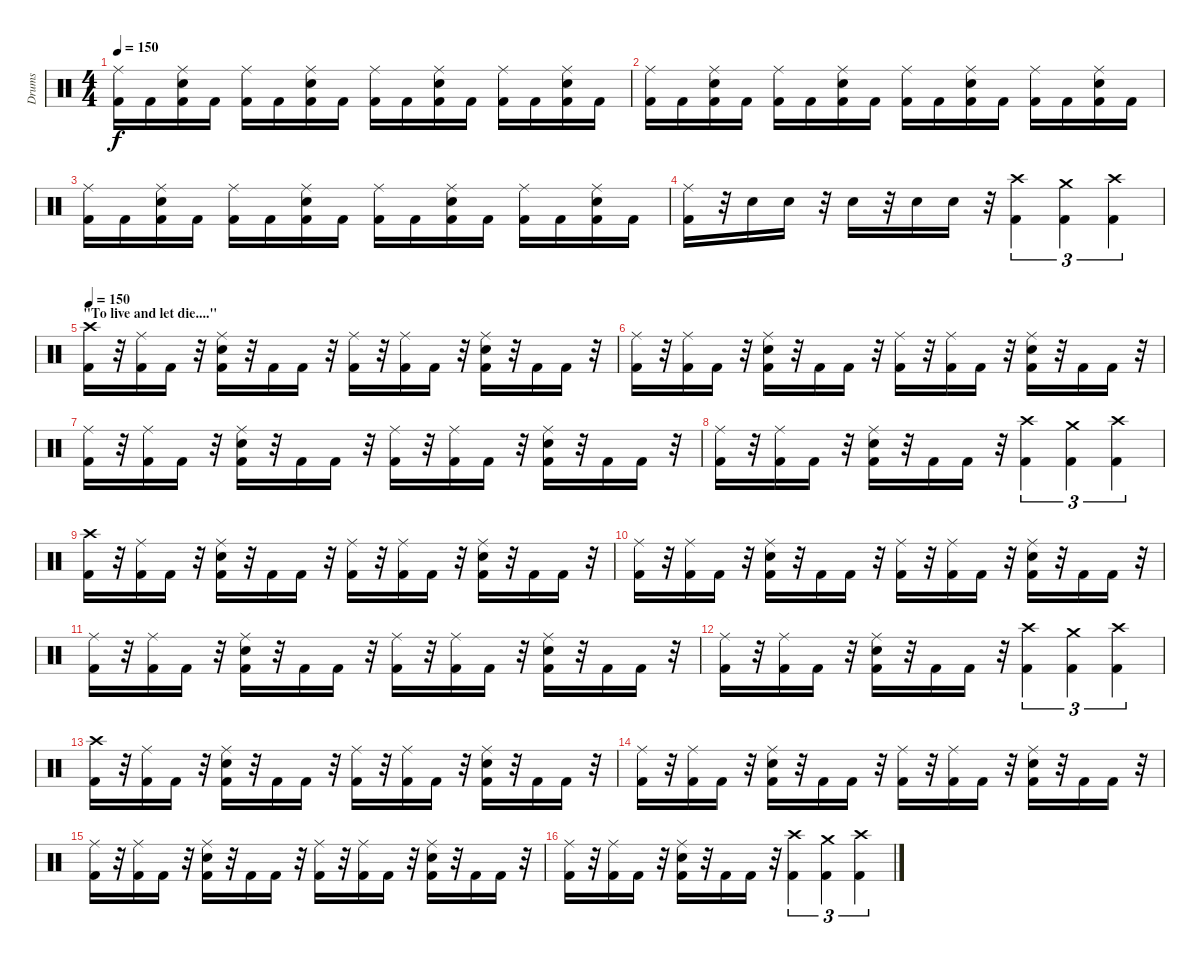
\track ("Drums" "Drums") {instrument percussion}
\staff {score}
\articulation defaults
\ts (4 4)
\tempo 150
\clef neutral
\ks c
("Ride (middle)" "Kick (hit) 2").16{dy f} "Kick (hit) 2".16 ("Ride (middle)" "Electric Snare (hit)" "Kick (hit) 2").16 "Kick (hit) 2".16 ("Ride (middle)" "Kick (hit) 2").16 "Kick (hit) 2".16 ("Ride (middle)" "Electric Snare (hit)" "Kick (hit) 2").16 "Kick (hit) 2".16 ("Ride (middle)" "Kick (hit) 2").16 "Kick (hit) 2".16 ("Ride (middle)" "Electric Snare (hit)" "Kick (hit) 2").16 "Kick (hit) 2".16 ("Ride (middle)" "Kick (hit) 2").16 "Kick (hit) 2".16 ("Ride (middle)" "Electric Snare (hit)" "Kick (hit) 2").16 "Kick (hit) 2".16 |
("Ride (middle)" "Kick (hit) 2").16 "Kick (hit) 2".16 ("Ride (middle)" "Electric Snare (hit)" "Kick (hit) 2").16 "Kick (hit) 2".16 ("Ride (middle)" "Kick (hit) 2").16 "Kick (hit) 2".16 ("Ride (middle)" "Electric Snare (hit)" "Kick (hit) 2").16 "Kick (hit) 2".16 ("Ride (middle)" "Kick (hit) 2").16 "Kick (hit) 2".16 ("Ride (middle)" "Electric Snare (hit)" "Kick (hit) 2").16 "Kick (hit) 2".16 ("Ride (middle)" "Kick (hit) 2").16 "Kick (hit) 2".16 ("Ride (middle)" "Electric Snare (hit)" "Kick (hit) 2").16 "Kick (hit) 2".16 |
("Ride (middle)" "Kick (hit) 2").16 "Kick (hit) 2".16 ("Ride (middle)" "Electric Snare (hit)" "Kick (hit) 2").16 "Kick (hit) 2".16 ("Ride (middle)" "Kick (hit) 2").16 "Kick (hit) 2".16 ("Ride (middle)" "Electric Snare (hit)" "Kick (hit) 2").16 "Kick (hit) 2".16 ("Ride (middle)" "Kick (hit) 2").16 "Kick (hit) 2".16 ("Ride (middle)" "Electric Snare (hit)" "Kick (hit) 2").16 "Kick (hit) 2".16 ("Ride (middle)" "Kick (hit) 2").16 "Kick (hit) 2".16 ("Ride (middle)" "Electric Snare (hit)" "Kick (hit) 2").16 "Kick (hit) 2".16 |
("Ride (middle)" "Kick (hit) 2").16 r.32 "Electric Snare (hit)".16 "Electric Snare (hit)".16 r.32 "Electric Snare (hit)".16 r.32 "Electric Snare (hit)".16 "Electric Snare (hit)".16 r.32 ("Crash high (hit)" "Kick (hit) 2").4{tu (3 2)} ("Crash medium (hit)" "Kick (hit) 2").4{tu (3 2)} ("Crash high (hit)" "Kick (hit) 2").4{tu (3 2)} |
\section ("" "\"To live and let die....\"")
\tempo 150
("Crash high (hit)" "Kick (hit) 2").16 r.32 ("Ride (middle)" "Kick (hit) 2").16 "Kick (hit) 2".16 r.32 ("Ride (middle)" "Electric Snare (hit)" "Kick (hit) 2").16 r.32 "Kick (hit) 2".16 "Kick (hit) 2".16 r.32 ("Ride (middle)" "Kick (hit) 2").16 r.32 ("Ride (middle)" "Kick (hit) 2").16 "Kick (hit) 2".16 r.32 ("Ride (middle)" "Electric Snare (hit)" "Kick (hit) 2").16 r.32 "Kick (hit) 2".16 "Kick (hit) 2".16 r.32 |
("Ride (middle)" "Kick (hit) 2").16 r.32 ("Ride (middle)" "Kick (hit) 2").16 "Kick (hit) 2".16 r.32 ("Ride (middle)" "Electric Snare (hit)" "Kick (hit) 2").16 r.32 "Kick (hit) 2".16 "Kick (hit) 2".16 r.32 ("Ride (middle)" "Kick (hit) 2").16 r.32 ("Ride (middle)" "Kick (hit) 2").16 "Kick (hit) 2".16 r.32 ("Ride (middle)" "Electric Snare (hit)" "Kick (hit) 2").16 r.32 "Kick (hit) 2".16 "Kick (hit) 2".16 r.32 |
("Ride (middle)" "Kick (hit) 2").16 r.32 ("Ride (middle)" "Kick (hit) 2").16 "Kick (hit) 2".16 r.32 ("Ride (middle)" "Electric Snare (hit)" "Kick (hit) 2").16 r.32 "Kick (hit) 2".16 "Kick (hit) 2".16 r.32 ("Ride (middle)" "Kick (hit) 2").16 r.32 ("Ride (middle)" "Kick (hit) 2").16 "Kick (hit) 2".16 r.32 ("Ride (middle)" "Electric Snare (hit)" "Kick (hit) 2").16 r.32 "Kick (hit) 2".16 "Kick (hit) 2".16 r.32 |
("Ride (middle)" "Kick (hit) 2").16 r.32 ("Ride (middle)" "Kick (hit) 2").16 "Kick (hit) 2".16 r.32 ("Ride (middle)" "Electric Snare (hit)" "Kick (hit) 2").16 r.32 "Kick (hit) 2".16 "Kick (hit) 2".16 r.32 ("Crash high (hit)" "Kick (hit) 2").4{tu (3 2)} ("Crash medium (hit)" "Kick (hit) 2").4{tu (3 2)} ("Crash high (hit)" "Kick (hit) 2").4{tu (3 2)} |
("Crash high (hit)" "Kick (hit) 2").16 r.32 ("Ride (middle)" "Kick (hit) 2").16 "Kick (hit) 2".16 r.32 ("Ride (middle)" "Electric Snare (hit)" "Kick (hit) 2").16 r.32 "Kick (hit) 2".16 "Kick (hit) 2".16 r.32 ("Ride (middle)" "Kick (hit) 2").16 r.32 ("Ride (middle)" "Kick (hit) 2").16 "Kick (hit) 2".16 r.32 ("Ride (middle)" "Electric Snare (hit)" "Kick (hit) 2").16 r.32 "Kick (hit) 2".16 "Kick (hit) 2".16 r.32 |
("Ride (middle)" "Kick (hit) 2").16 r.32 ("Ride (middle)" "Kick (hit) 2").16 "Kick (hit) 2".16 r.32 ("Ride (middle)" "Electric Snare (hit)" "Kick (hit) 2").16 r.32 "Kick (hit) 2".16 "Kick (hit) 2".16 r.32 ("Ride (middle)" "Kick (hit) 2").16 r.32 ("Ride (middle)" "Kick (hit) 2").16 "Kick (hit) 2".16 r.32 ("Ride (middle)" "Electric Snare (hit)" "Kick (hit) 2").16 r.32 "Kick (hit) 2".16 "Kick (hit) 2".16 r.32 |
("Ride (middle)" "Kick (hit) 2").16 r.32 ("Ride (middle)" "Kick (hit) 2").16 "Kick (hit) 2".16 r.32 ("Ride (middle)" "Electric Snare (hit)" "Kick (hit) 2").16 r.32 "Kick (hit) 2".16 "Kick (hit) 2".16 r.32 ("Ride (middle)" "Kick (hit) 2").16 r.32 ("Ride (middle)" "Kick (hit) 2").16 "Kick (hit) 2".16 r.32 ("Ride (middle)" "Electric Snare (hit)" "Kick (hit) 2").16 r.32 "Kick (hit) 2".16 "Kick (hit) 2".16 r.32 |
("Ride (middle)" "Kick (hit) 2").16 r.32 ("Ride (middle)" "Kick (hit) 2").16 "Kick (hit) 2".16 r.32 ("Ride (middle)" "Electric Snare (hit)" "Kick (hit) 2").16 r.32 "Kick (hit) 2".16 "Kick (hit) 2".16 r.32 ("Crash high (hit)" "Kick (hit) 2").4{tu (3 2)} ("Crash medium (hit)" "Kick (hit) 2").4{tu (3 2)} ("Crash high (hit)" "Kick (hit) 2").4{tu (3 2)} |
("Crash high (hit)" "Kick (hit) 2").16 r.32 ("Ride (middle)" "Kick (hit) 2").16 "Kick (hit) 2".16 r.32 ("Ride (middle)" "Electric Snare (hit)" "Kick (hit) 2").16 r.32 "Kick (hit) 2".16 "Kick (hit) 2".16 r.32 ("Ride (middle)" "Kick (hit) 2").16 r.32 ("Ride (middle)" "Kick (hit) 2").16 "Kick (hit) 2".16 r.32 ("Ride (middle)" "Electric Snare (hit)" "Kick (hit) 2").16 r.32 "Kick (hit) 2".16 "Kick (hit) 2".16 r.32 |
("Ride (middle)" "Kick (hit) 2").16 r.32 ("Ride (middle)" "Kick (hit) 2").16 "Kick (hit) 2".16 r.32 ("Ride (middle)" "Electric Snare (hit)" "Kick (hit) 2").16 r.32 "Kick (hit) 2".16 "Kick (hit) 2".16 r.32 ("Ride (middle)" "Kick (hit) 2").16 r.32 ("Ride (middle)" "Kick (hit) 2").16 "Kick (hit) 2".16 r.32 ("Ride (middle)" "Electric Snare (hit)" "Kick (hit) 2").16 r.32 "Kick (hit) 2".16 "Kick (hit) 2".16 r.32 |
("Ride (middle)" "Kick (hit) 2").16 r.32 ("Ride (middle)" "Kick (hit) 2").16 "Kick (hit) 2".16 r.32 ("Ride (middle)" "Electric Snare (hit)" "Kick (hit) 2").16 r.32 "Kick (hit) 2".16 "Kick (hit) 2".16 r.32 ("Ride (middle)" "Kick (hit) 2").16 r.32 ("Ride (middle)" "Kick (hit) 2").16 "Kick (hit) 2".16 r.32 ("Ride (middle)" "Electric Snare (hit)" "Kick (hit) 2").16 r.32 "Kick (hit) 2".16 "Kick (hit) 2".16 r.32 |
("Ride (middle)" "Kick (hit) 2").16 r.32 ("Ride (middle)" "Kick (hit) 2").16 "Kick (hit) 2".16 r.32 ("Ride (middle)" "Electric Snare (hit)" "Kick (hit) 2").16 r.32 "Kick (hit) 2".16 "Kick (hit) 2".16 r.32 ("Crash high (hit)" "Kick (hit) 2").4{tu (3 2)} ("Crash medium (hit)" "Kick (hit) 2").4{tu (3 2)} ("Crash high (hit)" "Kick (hit) 2").4{tu (3 2)}
